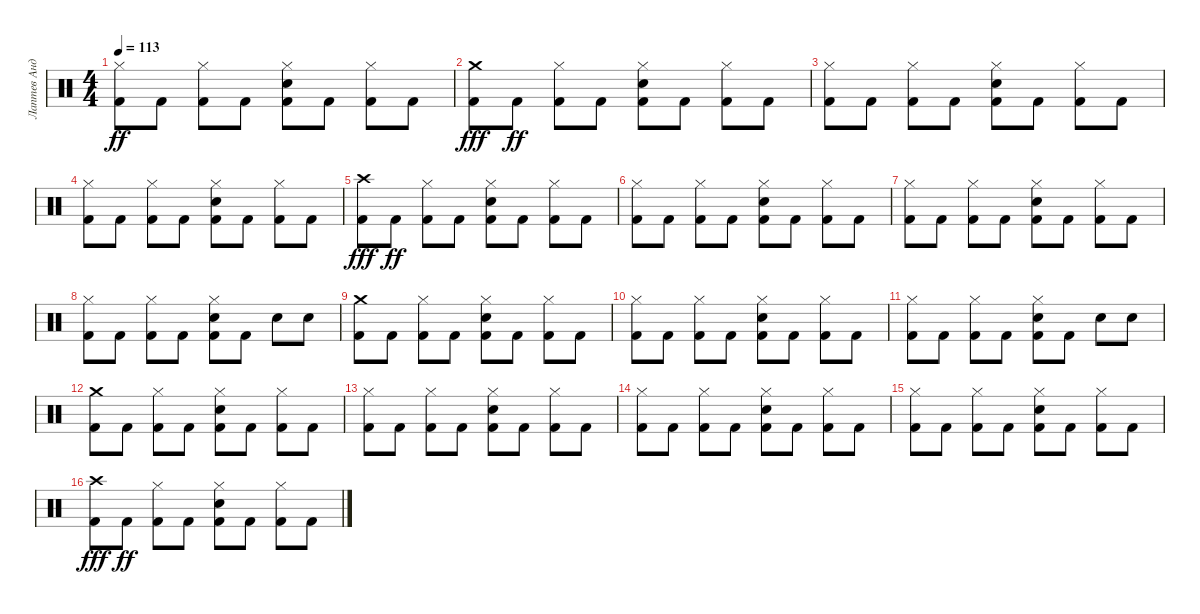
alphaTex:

\track ("Лаптев Андрей" "Лаптев Анд") {instrument percussion}
\staff {score}
\articulation defaults
\ts (4 4)
\tempo 113
\clef neutral
\ks c
("Hi-Hat (closed)" "Kick (hit) 2").8{dy ff} "Kick (hit) 2".8 ("Kick (hit) 2" "Hi-Hat (closed)").8 "Kick (hit) 2".8 ("Hi-Hat (closed)" "Kick (hit) 2" "Electric Snare (hit)").8 "Kick (hit) 2".8 ("Kick (hit) 2" "Hi-Hat (closed)").8 "Kick (hit) 2".8 |
("Kick (hit) 2" "Crash medium (hit)").8{dy fff} "Kick (hit) 2".8{dy ff} ("Hi-Hat (closed)" "Kick (hit) 2").8 "Kick (hit) 2".8 ("Kick (hit) 2" "Electric Snare (hit)" "Hi-Hat (closed)").8 "Kick (hit) 2".8 ("Hi-Hat (closed)" "Kick (hit) 2").8 "Kick (hit) 2".8 |
("Kick (hit) 2" "Hi-Hat (closed)").8 "Kick (hit) 2".8 ("Hi-Hat (closed)" "Kick (hit) 2").8 "Kick (hit) 2".8 ("Hi-Hat (closed)" "Electric Snare (hit)" "Kick (hit) 2").8 "Kick (hit) 2".8 ("Hi-Hat (closed)" "Kick (hit) 2").8 "Kick (hit) 2".8 |
("Kick (hit) 2" "Hi-Hat (closed)").8 "Kick (hit) 2".8 ("Kick (hit) 2" "Hi-Hat (closed)").8 "Kick (hit) 2".8 ("Hi-Hat (closed)" "Kick (hit) 2" "Electric Snare (hit)").8 "Kick (hit) 2".8 ("Hi-Hat (closed)" "Kick (hit) 2").8 "Kick (hit) 2".8 |
("Kick (hit) 2" "Crash high (hit)").8{dy fff} "Kick (hit) 2".8{dy ff} ("Hi-Hat (closed)" "Kick (hit) 2").8 "Kick (hit) 2".8 ("Hi-Hat (closed)" "Kick (hit) 2" "Electric Snare (hit)").8 "Kick (hit) 2".8 ("Kick (hit) 2" "Hi-Hat (closed)").8 "Kick (hit) 2".8 |
("Hi-Hat (closed)" "Kick (hit) 2").8 "Kick (hit) 2".8 ("Kick (hit) 2" "Hi-Hat (closed)").8 "Kick (hit) 2".8 ("Electric Snare (hit)" "Kick (hit) 2" "Hi-Hat (closed)").8 "Kick (hit) 2".8 ("Hi-Hat (closed)" "Kick (hit) 2").8 "Kick (hit) 2".8 |
("Kick (hit) 2" "Hi-Hat (closed)").8 "Kick (hit) 2".8 ("Kick (hit) 2" "Hi-Hat (closed)").8 "Kick (hit) 2".8 ("Electric Snare (hit)" "Kick (hit) 2" "Hi-Hat (closed)").8 "Kick (hit) 2".8 ("Kick (hit) 2" "Hi-Hat (closed)").8 "Kick (hit) 2".8 |
("Kick (hit) 2" "Hi-Hat (closed)").8 "Kick (hit) 2".8 ("Kick (hit) 2" "Hi-Hat (closed)").8 "Kick (hit) 2".8 ("Hi-Hat (closed)" "Electric Snare (hit)" "Kick (hit) 2").8 "Kick (hit) 2".8 "Electric Snare (hit)".8 "Electric Snare (hit)".8 |
("Crash medium (hit)" "Kick (hit) 2").8 "Kick (hit) 2".8 ("Hi-Hat (closed)" "Kick (hit) 2").8 "Kick (hit) 2".8 ("Electric Snare (hit)" "Hi-Hat (closed)" "Kick (hit) 2").8 "Kick (hit) 2".8 ("Hi-Hat (closed)" "Kick (hit) 2").8 "Kick (hit) 2".8 |
("Kick (hit) 2" "Hi-Hat (closed)").8 "Kick (hit) 2".8 ("Hi-Hat (closed)" "Kick (hit) 2").8 "Kick (hit) 2".8 ("Electric Snare (hit)" "Hi-Hat (closed)" "Kick (hit) 2").8 "Kick (hit) 2".8 ("Hi-Hat (closed)" "Kick (hit) 2").8 "Kick (hit) 2".8 |
("Kick (hit) 2" "Hi-Hat (closed)").8 "Kick (hit) 2".8 ("Kick (hit) 2" "Hi-Hat (closed)").8 "Kick (hit) 2".8 ("Hi-Hat (closed)" "Kick (hit) 2" "Electric Snare (hit)").8 "Kick (hit) 2".8 "Electric Snare (hit)".8 "Electric Snare (hit)".8 |
("Crash medium (hit)" "Kick (hit) 2").8 "Kick (hit) 2".8 ("Kick (hit) 2" "Hi-Hat (closed)").8 "Kick (hit) 2".8 ("Hi-Hat (closed)" "Kick (hit) 2" "Electric Snare (hit)").8 "Kick (hit) 2".8 ("Kick (hit) 2" "Hi-Hat (closed)").8 "Kick (hit) 2".8 |
("Kick (hit) 2" "Hi-Hat (closed)").8 "Kick (hit) 2".8 ("Hi-Hat (closed)" "Kick (hit) 2").8 "Kick (hit) 2".8 ("Kick (hit) 2" "Electric Snare (hit)" "Hi-Hat (closed)").8 "Kick (hit) 2".8 ("Hi-Hat (closed)" "Kick (hit) 2").8 "Kick (hit) 2".8 |
("Kick (hit) 2" "Hi-Hat (closed)").8 "Kick (hit) 2".8 ("Hi-Hat (closed)" "Kick (hit) 2").8 "Kick (hit) 2".8 ("Hi-Hat (closed)" "Electric Snare (hit)" "Kick (hit) 2").8 "Kick (hit) 2".8 ("Hi-Hat (closed)" "Kick (hit) 2").8 "Kick (hit) 2".8 |
("Kick (hit) 2" "Hi-Hat (closed)").8 "Kick (hit) 2".8 ("Kick (hit) 2" "Hi-Hat (closed)").8 "Kick (hit) 2".8 ("Hi-Hat (closed)" "Kick (hit) 2" "Electric Snare (hit)").8 "Kick (hit) 2".8 ("Hi-Hat (closed)" "Kick (hit) 2").8 "Kick (hit) 2".8 |
("Kick (hit) 2" "Crash high (hit)").8{dy fff} "Kick (hit) 2".8{dy ff} ("Hi-Hat (closed)" "Kick (hit) 2").8 "Kick (hit) 2".8 ("Hi-Hat (closed)" "Kick (hit) 2" "Electric Snare (hit)").8 "Kick (hit) 2".8 ("Kick (hit) 2" "Hi-Hat (closed)").8 "Kick (hit) 2".8
